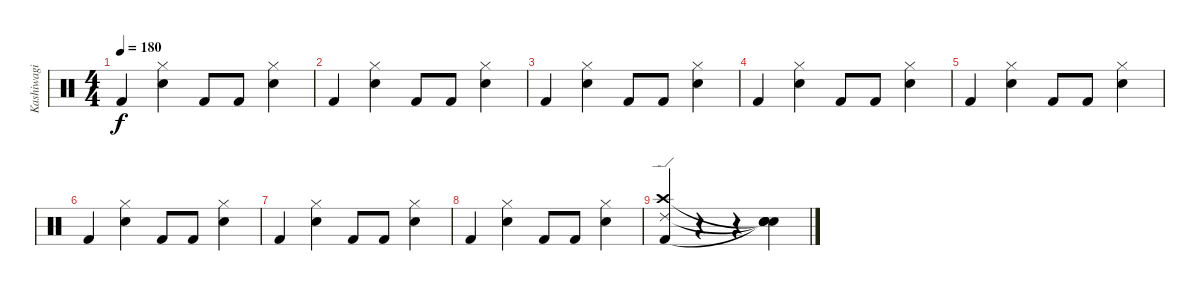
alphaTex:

\track ("Kashiwagi Yuki" "Kashiwagi ") {instrument percussion}
\staff {score}
\articulation defaults
\ts (4 4)
\tempo 180
\clef neutral
\ks c "Kick (hit) 2".4{dy f}
("Hi-Hat (closed)" "Electric Snare (hit)").4 "Kick (hit) 2".8 "Kick (hit) 2".8 ("Hi-Hat (closed)" "Electric Snare (hit)").4 |
"Kick (hit) 2".4 ("Hi-Hat (closed)" "Electric Snare (hit)").4 "Kick (hit) 2".8 "Kick (hit) 2".8 ("Hi-Hat (closed)" "Electric Snare (hit)").4 |
"Kick (hit) 2".4 ("Hi-Hat (closed)" "Electric Snare (hit)").4 "Kick (hit) 2".8 "Kick (hit) 2".8 ("Hi-Hat (closed)" "Electric Snare (hit)").4 |
"Kick (hit) 2".4 ("Hi-Hat (closed)" "Electric Snare (hit)").4 "Kick (hit) 2".8 "Kick (hit) 2".8 ("Hi-Hat (closed)" "Electric Snare (hit)").4 |
"Kick (hit) 2".4 ("Hi-Hat (closed)" "Electric Snare (hit)").4 "Kick (hit) 2".8 "Kick (hit) 2".8 ("Hi-Hat (closed)" "Electric Snare (hit)").4 |
"Kick (hit) 2".4 ("Hi-Hat (closed)" "Electric Snare (hit)").4 "Kick (hit) 2".8 "Kick (hit) 2".8 ("Hi-Hat (closed)" "Electric Snare (hit)").4 |
"Kick (hit) 2".4 ("Hi-Hat (closed)" "Electric Snare (hit)").4 "Kick (hit) 2".8 "Kick (hit) 2".8 ("Hi-Hat (closed)" "Electric Snare (hit)").4 |
"Kick (hit) 2".4 ("Hi-Hat (closed)" "Electric Snare (hit)").4 "Kick (hit) 2".8 "Kick (hit) 2".8 ("Hi-Hat (closed)" "Electric Snare (hit)").4 |
("Crash high (hit)" "Ride (edge) 2" "Kick (hit) 2").4 r.4 r.4 ("Snare (hit)"{t} "Snare (hit)"{t} "Snare (hit)"{t} "Snare (hit)").4
